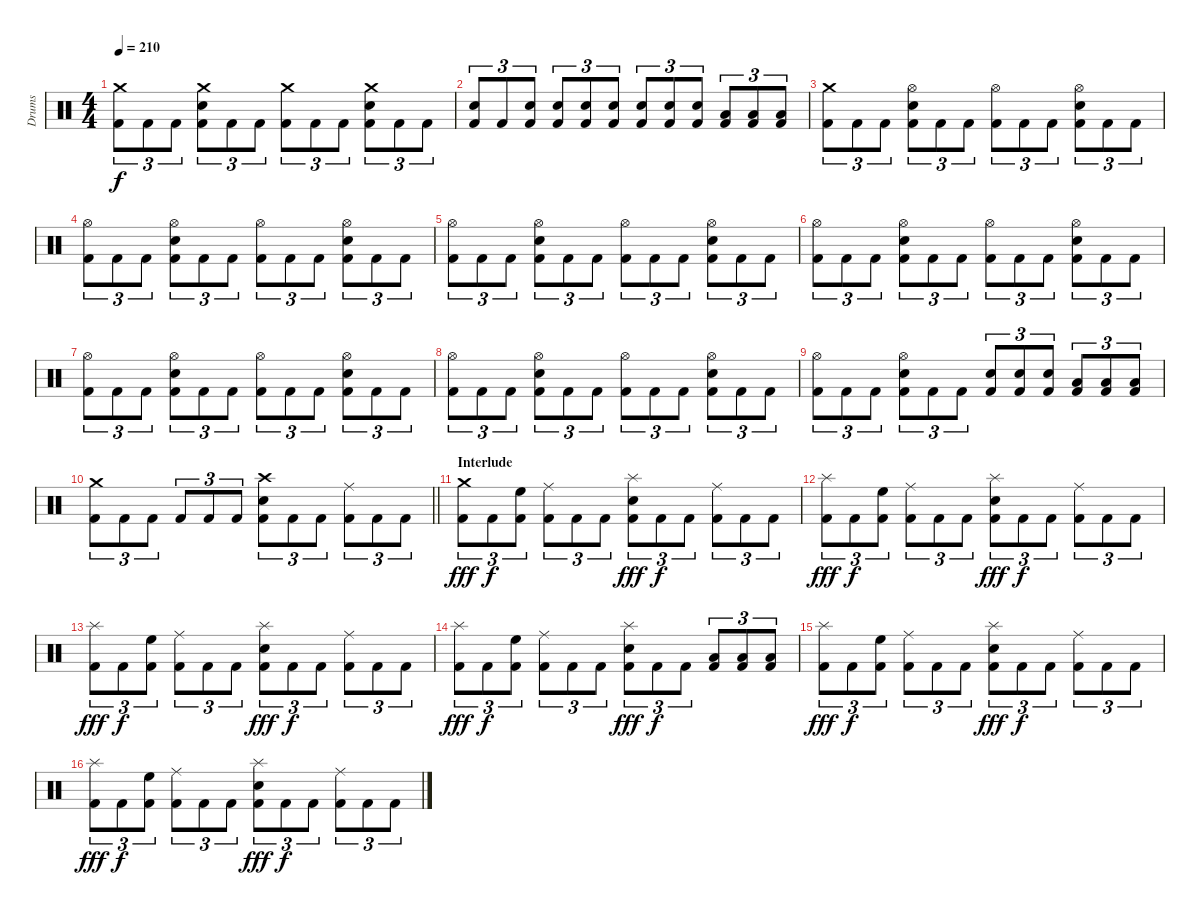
\track ("Drums" "Drums") {instrument percussion}
\staff {score}
\articulation defaults
\ts (4 4)
\tempo 210
\clef neutral
\ks c
("Crash medium (hit)" "Kick (hit) 2").8{tu (3 2) dy f} "Kick (hit) 2".8{tu (3 2)} "Kick (hit) 2".8{tu (3 2)} ("Crash medium (hit)" "Electric Snare (hit)" "Kick (hit) 2").8{tu (3 2)} "Kick (hit) 2".8{tu (3 2)} "Kick (hit) 2".8{tu (3 2)} ("Crash medium (hit)" "Kick (hit) 2").8{tu (3 2)} "Kick (hit) 2".8{tu (3 2)} "Kick (hit) 2".8{tu (3 2)} ("Crash medium (hit)" "Electric Snare (hit)" "Kick (hit) 2").8{tu (3 2)} "Kick (hit) 2".8{tu (3 2)} "Kick (hit) 2".8{tu (3 2)} |
("Electric Snare (hit)" "Kick (hit) 2").8{tu (3 2)} "Kick (hit) 2".8{tu (3 2)} ("Electric Snare (hit)" "Kick (hit) 2").8{tu (3 2)} ("Electric Snare (hit)" "Kick (hit) 2").8{tu (3 2)} ("Electric Snare (hit)" "Kick (hit) 2").8{tu (3 2)} ("Electric Snare (hit)" "Kick (hit) 2").8{tu (3 2)} ("Electric Snare (hit)" "Kick (hit) 2").8{tu (3 2)} ("Electric Snare (hit)" "Kick (hit) 2").8{tu (3 2)} ("Electric Snare (hit)" "Kick (hit) 2").8{tu (3 2)} ("Low Tom (hit)" "Kick (hit) 2").8{tu (3 2)} ("Low Tom (hit)" "Kick (hit) 2").8{tu (3 2)} ("Low Tom (hit)" "Kick (hit) 2").8{tu (3 2)} |
("Crash medium (hit)" "Kick (hit) 2").8{tu (3 2)} "Kick (hit) 2".8{tu (3 2)} "Kick (hit) 2".8{tu (3 2)} ("Hi-Hat (open)" "Electric Snare (hit)" "Kick (hit) 2").8{tu (3 2)} "Kick (hit) 2".8{tu (3 2)} "Kick (hit) 2".8{tu (3 2)} ("Hi-Hat (open)" "Kick (hit) 2").8{tu (3 2)} "Kick (hit) 2".8{tu (3 2)} "Kick (hit) 2".8{tu (3 2)} ("Hi-Hat (open)" "Electric Snare (hit)" "Kick (hit) 2").8{tu (3 2)} "Kick (hit) 2".8{tu (3 2)} "Kick (hit) 2".8{tu (3 2)} |
("Hi-Hat (open)" "Kick (hit) 2").8{tu (3 2)} "Kick (hit) 2".8{tu (3 2)} "Kick (hit) 2".8{tu (3 2)} ("Hi-Hat (open)" "Electric Snare (hit)" "Kick (hit) 2").8{tu (3 2)} "Kick (hit) 2".8{tu (3 2)} "Kick (hit) 2".8{tu (3 2)} ("Hi-Hat (open)" "Kick (hit) 2").8{tu (3 2)} "Kick (hit) 2".8{tu (3 2)} "Kick (hit) 2".8{tu (3 2)} ("Hi-Hat (open)" "Electric Snare (hit)" "Kick (hit) 2").8{tu (3 2)} "Kick (hit) 2".8{tu (3 2)} "Kick (hit) 2".8{tu (3 2)} |
("Hi-Hat (open)" "Kick (hit) 2").8{tu (3 2)} "Kick (hit) 2".8{tu (3 2)} "Kick (hit) 2".8{tu (3 2)} ("Hi-Hat (open)" "Electric Snare (hit)" "Kick (hit) 2").8{tu (3 2)} "Kick (hit) 2".8{tu (3 2)} "Kick (hit) 2".8{tu (3 2)} ("Hi-Hat (open)" "Kick (hit) 2").8{tu (3 2)} "Kick (hit) 2".8{tu (3 2)} "Kick (hit) 2".8{tu (3 2)} ("Hi-Hat (open)" "Electric Snare (hit)" "Kick (hit) 2").8{tu (3 2)} "Kick (hit) 2".8{tu (3 2)} "Kick (hit) 2".8{tu (3 2)} |
("Hi-Hat (open)" "Kick (hit) 2").8{tu (3 2)} "Kick (hit) 2".8{tu (3 2)} "Kick (hit) 2".8{tu (3 2)} ("Hi-Hat (open)" "Electric Snare (hit)" "Kick (hit) 2").8{tu (3 2)} "Kick (hit) 2".8{tu (3 2)} "Kick (hit) 2".8{tu (3 2)} ("Hi-Hat (open)" "Kick (hit) 2").8{tu (3 2)} "Kick (hit) 2".8{tu (3 2)} "Kick (hit) 2".8{tu (3 2)} ("Hi-Hat (open)" "Electric Snare (hit)" "Kick (hit) 2").8{tu (3 2)} "Kick (hit) 2".8{tu (3 2)} "Kick (hit) 2".8{tu (3 2)} |
("Hi-Hat (open)" "Kick (hit) 2").8{tu (3 2)} "Kick (hit) 2".8{tu (3 2)} "Kick (hit) 2".8{tu (3 2)} ("Hi-Hat (open)" "Electric Snare (hit)" "Kick (hit) 2").8{tu (3 2)} "Kick (hit) 2".8{tu (3 2)} "Kick (hit) 2".8{tu (3 2)} ("Hi-Hat (open)" "Kick (hit) 2").8{tu (3 2)} "Kick (hit) 2".8{tu (3 2)} "Kick (hit) 2".8{tu (3 2)} ("Hi-Hat (open)" "Electric Snare (hit)" "Kick (hit) 2").8{tu (3 2)} "Kick (hit) 2".8{tu (3 2)} "Kick (hit) 2".8{tu (3 2)} |
("Hi-Hat (open)" "Kick (hit) 2").8{tu (3 2)} "Kick (hit) 2".8{tu (3 2)} "Kick (hit) 2".8{tu (3 2)} ("Hi-Hat (open)" "Electric Snare (hit)" "Kick (hit) 2").8{tu (3 2)} "Kick (hit) 2".8{tu (3 2)} "Kick (hit) 2".8{tu (3 2)} ("Hi-Hat (open)" "Kick (hit) 2").8{tu (3 2)} "Kick (hit) 2".8{tu (3 2)} "Kick (hit) 2".8{tu (3 2)} ("Hi-Hat (open)" "Electric Snare (hit)" "Kick (hit) 2").8{tu (3 2)} "Kick (hit) 2".8{tu (3 2)} "Kick (hit) 2".8{tu (3 2)} |
("Hi-Hat (open)" "Kick (hit) 2").8{tu (3 2)} "Kick (hit) 2".8{tu (3 2)} "Kick (hit) 2".8{tu (3 2)} ("Hi-Hat (open)" "Electric Snare (hit)" "Kick (hit) 2").8{tu (3 2)} "Kick (hit) 2".8{tu (3 2)} "Kick (hit) 2".8{tu (3 2)} ("Electric Snare (hit)" "Kick (hit) 2").8{tu (3 2)} ("Electric Snare (hit)" "Kick (hit) 2").8{tu (3 2)} ("Electric Snare (hit)" "Kick (hit) 2").8{tu (3 2)} ("Low Tom (hit)" "Kick (hit) 2").8{tu (3 2)} ("Low Tom (hit)" "Kick (hit) 2").8{tu (3 2)} ("Low Tom (hit)" "Kick (hit) 2").8{tu (3 2)} |
\barLineRight lightlight
("Crash medium (hit)" "Kick (hit) 2").8{tu (3 2)} "Kick (hit) 2".8{tu (3 2)} "Kick (hit) 2".8{tu (3 2)} "Kick (hit) 2".8{tu (3 2)} "Kick (hit) 2".8{tu (3 2)} "Kick (hit) 2".8{tu (3 2)} ("Crash high (hit)" "Electric Snare (hit)" "Kick (hit) 2").8{tu (3 2)} "Kick (hit) 2".8{tu (3 2)} "Kick (hit) 2".8{tu (3 2)} ("Ride (middle)" "Kick (hit) 2").8{tu (3 2)} "Kick (hit) 2".8{tu (3 2)} "Kick (hit) 2".8{tu (3 2)} |
\section ("" "Interlude")
("Crash medium (hit)" "Kick (hit) 2").8{tu (3 2) dy fff} "Kick (hit) 2".8{tu (3 2) dy f} ("High Floor Tom (hit)" "Kick (hit) 2").8{tu (3 2)} ("Ride (middle)" "Kick (hit) 2").8{tu (3 2)} "Kick (hit) 2".8{tu (3 2)} "Kick (hit) 2".8{tu (3 2)} ("Splash (hit)" "Electric Snare (hit)" "Kick (hit) 2").8{tu (3 2) dy fff} "Kick (hit) 2".8{tu (3 2) dy f} "Kick (hit) 2".8{tu (3 2)} ("Ride (middle)" "Kick (hit) 2").8{tu (3 2)} "Kick (hit) 2".8{tu (3 2)} "Kick (hit) 2".8{tu (3 2)} |
("Splash (hit)" "Kick (hit) 2").8{tu (3 2) dy fff} "Kick (hit) 2".8{tu (3 2) dy f} ("High Floor Tom (hit)" "Kick (hit) 2").8{tu (3 2)} ("Ride (middle)" "Kick (hit) 2").8{tu (3 2)} "Kick (hit) 2".8{tu (3 2)} "Kick (hit) 2".8{tu (3 2)} ("Splash (hit)" "Electric Snare (hit)" "Kick (hit) 2").8{tu (3 2) dy fff} "Kick (hit) 2".8{tu (3 2) dy f} "Kick (hit) 2".8{tu (3 2)} ("Ride (middle)" "Kick (hit) 2").8{tu (3 2)} "Kick (hit) 2".8{tu (3 2)} "Kick (hit) 2".8{tu (3 2)} |
("Splash (hit)" "Kick (hit) 2").8{tu (3 2) dy fff} "Kick (hit) 2".8{tu (3 2) dy f} ("High Floor Tom (hit)" "Kick (hit) 2").8{tu (3 2)} ("Ride (middle)" "Kick (hit) 2").8{tu (3 2)} "Kick (hit) 2".8{tu (3 2)} "Kick (hit) 2".8{tu (3 2)} ("Splash (hit)" "Electric Snare (hit)" "Kick (hit) 2").8{tu (3 2) dy fff} "Kick (hit) 2".8{tu (3 2) dy f} "Kick (hit) 2".8{tu (3 2)} ("Ride (middle)" "Kick (hit) 2").8{tu (3 2)} "Kick (hit) 2".8{tu (3 2)} "Kick (hit) 2".8{tu (3 2)} |
("Splash (hit)" "Kick (hit) 2").8{tu (3 2) dy fff} "Kick (hit) 2".8{tu (3 2) dy f} ("High Floor Tom (hit)" "Kick (hit) 2").8{tu (3 2)} ("Ride (middle)" "Kick (hit) 2").8{tu (3 2)} "Kick (hit) 2".8{tu (3 2)} "Kick (hit) 2".8{tu (3 2)} ("Splash (hit)" "Electric Snare (hit)" "Kick (hit) 2").8{tu (3 2) dy fff} "Kick (hit) 2".8{tu (3 2) dy f} "Kick (hit) 2".8{tu (3 2)} ("Low Tom (hit)" "Kick (hit) 2").8{tu (3 2)} ("Low Tom (hit)" "Kick (hit) 2").8{tu (3 2)} ("Low Tom (hit)" "Kick (hit) 2").8{tu (3 2)} |
("Splash (hit)" "Kick (hit) 2").8{tu (3 2) dy fff} "Kick (hit) 2".8{tu (3 2) dy f} ("High Floor Tom (hit)" "Kick (hit) 2").8{tu (3 2)} ("Ride (middle)" "Kick (hit) 2").8{tu (3 2)} "Kick (hit) 2".8{tu (3 2)} "Kick (hit) 2".8{tu (3 2)} ("Splash (hit)" "Electric Snare (hit)" "Kick (hit) 2").8{tu (3 2) dy fff} "Kick (hit) 2".8{tu (3 2) dy f} "Kick (hit) 2".8{tu (3 2)} ("Ride (middle)" "Kick (hit) 2").8{tu (3 2)} "Kick (hit) 2".8{tu (3 2)} "Kick (hit) 2".8{tu (3 2)} |
("Splash (hit)" "Kick (hit) 2").8{tu (3 2) dy fff} "Kick (hit) 2".8{tu (3 2) dy f} ("High Floor Tom (hit)" "Kick (hit) 2").8{tu (3 2)} ("Ride (middle)" "Kick (hit) 2").8{tu (3 2)} "Kick (hit) 2".8{tu (3 2)} "Kick (hit) 2".8{tu (3 2)} ("Splash (hit)" "Electric Snare (hit)" "Kick (hit) 2").8{tu (3 2) dy fff} "Kick (hit) 2".8{tu (3 2) dy f} "Kick (hit) 2".8{tu (3 2)} ("Ride (middle)" "Kick (hit) 2").8{tu (3 2)} "Kick (hit) 2".8{tu (3 2)} "Kick (hit) 2".8{tu (3 2)}
